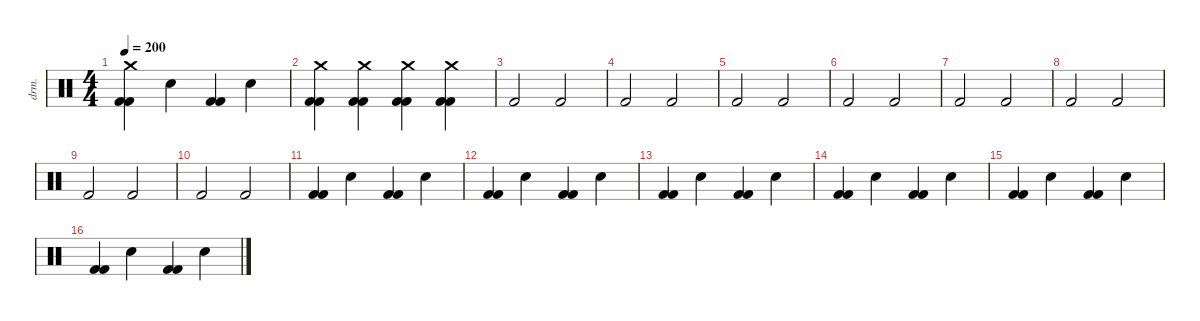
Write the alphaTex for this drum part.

\defaultSystemsLayout 4
\hideDynamics
\bracketExtendMode nobrackets
\track ("Perkusja" "drm.") {instrument percussion}
\staff {score}
\articulation defaults
\ts (4 4)
\tempo 200
\clef neutral
\ks c
("Crash medium (hit)" "Kick (hit) 2" "Kick (hit) 2").4{dy f} "Snare (hit) 2".4 ("Kick (hit) 2" "Kick (hit) 2").4 "Snare (hit) 2".4 |
("Crash medium (hit)" "Kick (hit) 2" "Kick (hit) 2").4 ("Crash medium (hit)" "Kick (hit) 2" "Kick (hit) 2").4 ("Crash medium (hit)" "Kick (hit) 2" "Kick (hit) 2").4 ("Crash medium (hit)" "Kick (hit) 2" "Kick (hit) 2").4 |
"Kick (hit) 2".2 "Kick (hit) 2".2 |
"Kick (hit) 2".2 "Kick (hit) 2".2 |
"Kick (hit) 2".2 "Kick (hit) 2".2 |
"Kick (hit) 2".2 "Kick (hit) 2".2 |
"Kick (hit) 2".2 "Kick (hit) 2".2 |
"Kick (hit) 2".2 "Kick (hit) 2".2 |
"Kick (hit) 2".2 "Kick (hit) 2".2 |
"Kick (hit) 2".2 "Kick (hit) 2".2 |
("Kick (hit) 2" "Kick (hit) 2").4 "Snare (hit) 2".4 ("Kick (hit) 2" "Kick (hit) 2").4 "Snare (hit) 2".4 |
("Kick (hit) 2" "Kick (hit) 2").4 "Snare (hit) 2".4 ("Kick (hit) 2" "Kick (hit) 2").4 "Snare (hit) 2".4 |
("Kick (hit) 2" "Kick (hit) 2").4 "Snare (hit) 2".4 ("Kick (hit) 2" "Kick (hit) 2").4 "Snare (hit) 2".4 |
("Kick (hit) 2" "Kick (hit) 2").4 "Snare (hit) 2".4 ("Kick (hit) 2" "Kick (hit) 2").4 "Snare (hit) 2".4 |
("Kick (hit) 2" "Kick (hit) 2").4 "Snare (hit) 2".4 ("Kick (hit) 2" "Kick (hit) 2").4 "Snare (hit) 2".4 |
("Kick (hit) 2" "Kick (hit) 2").4 "Snare (hit) 2".4 ("Kick (hit) 2" "Kick (hit) 2").4 "Snare (hit) 2".4
